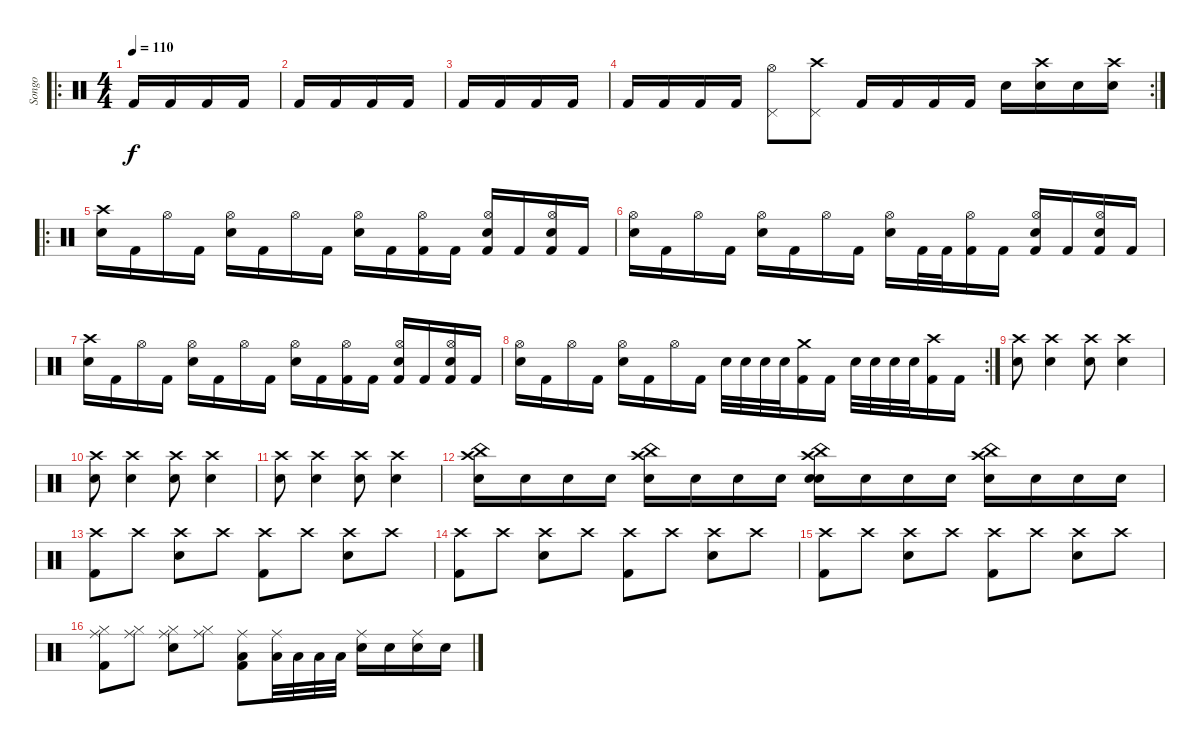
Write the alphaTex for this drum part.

\track ("Songo" "Songo") {instrument percussion}
\staff {score}
\articulation defaults
\ro
\ts (4 4)
\tempo 110
\clef neutral
\ks c "Kick (hit) 2".16{dy f} "Kick (hit) 2".16 "Kick (hit) 2".16 "Kick (hit) 2".16
|
"Kick (hit) 2".16 "Kick (hit) 2".16 "Kick (hit) 2".16 "Kick (hit) 2".16 |
"Kick (hit) 2".16 "Kick (hit) 2".16 "Kick (hit) 2".16 "Kick (hit) 2".16 |
\rc 2 "Kick (hit) 2".16 "Kick (hit) 2".16 "Kick (hit) 2".16 "Kick (hit) 2".16
("Pedal Hi-Hat (hit)" "Hi-Hat (open)").8 ("Pedal Hi-Hat (hit)" "Crash high (hit)").8 "Kick (hit) 2".16 "Kick (hit) 2".16 "Kick (hit) 2".16 "Kick (hit) 2".16 "Snare (hit) 2".16 ("Snare (hit) 2" "Crash high (hit)").16 "Snare (hit) 2".16 ("Snare (hit) 2" "Crash high (hit)").16 |
\ro
("Crash high (hit)" "Snare (hit) 2").16 "Kick (hit) 2".16 "Hi-Hat (open)".16 "Kick (hit) 2".16 ("Hi-Hat (open)" "Snare (hit) 2").16 "Kick (hit) 2".16 "Hi-Hat (open)".16 "Kick (hit) 2".16 ("Hi-Hat (open)" "Snare (hit) 2").16 "Kick (hit) 2".16 ("Hi-Hat (open)" "Kick (hit) 2").16 "Kick (hit) 2".16 ("Hi-Hat (open)" "Snare (hit) 2" "Kick (hit) 2").16 "Kick (hit) 2".16 ("Hi-Hat (open)" "Snare (hit) 2" "Kick (hit) 2").16 "Kick (hit) 2".16 |
("Hi-Hat (open)" "Snare (hit) 2").16 "Kick (hit) 2".16 "Hi-Hat (open)".16 "Kick (hit) 2".16 ("Hi-Hat (open)" "Snare (hit) 2").16 "Kick (hit) 2".16 "Hi-Hat (open)".16 "Kick (hit) 2".16 ("Hi-Hat (open)" "Snare (hit) 2").16 "Kick (hit) 2".32 "Kick (hit) 2".32 ("Hi-Hat (open)" "Kick (hit) 2").16 "Kick (hit) 2".16 ("Hi-Hat (open)" "Snare (hit) 2" "Kick (hit) 2").16 "Kick (hit) 2".16 ("Hi-Hat (open)" "Snare (hit) 2" "Kick (hit) 2").16 "Kick (hit) 2".16 |
("Crash high (hit)" "Snare (hit) 2").16 "Kick (hit) 2".16 "Hi-Hat (open)".16 "Kick (hit) 2".16 ("Hi-Hat (open)" "Snare (hit) 2").16 "Kick (hit) 2".16 "Hi-Hat (open)".16 "Kick (hit) 2".16 ("Hi-Hat (open)" "Snare (hit) 2").16 "Kick (hit) 2".16 ("Hi-Hat (open)" "Kick (hit) 2").16 "Kick (hit) 2".16 ("Hi-Hat (open)" "Snare (hit) 2" "Kick (hit) 2").16 "Kick (hit) 2".16 ("Hi-Hat (open)" "Snare (hit) 2" "Kick (hit) 2").16 "Kick (hit) 2".16 |
\rc 2
("Hi-Hat (open)" "Snare (hit) 2").16 "Kick (hit) 2".16 "Hi-Hat (open)".16 "Kick (hit) 2".16 ("Hi-Hat (open)" "Snare (hit) 2").16 "Kick (hit) 2".16 "Hi-Hat (open)".16 "Kick (hit) 2".16 "Snare (hit) 2".32 "Snare (hit) 2".32 "Snare (hit) 2".32 "Snare (hit) 2".32 ("Crash medium (hit)" "Kick (hit) 2").16 "Kick (hit) 2".16 "Snare (hit) 2".32 "Snare (hit) 2".32 "Snare (hit) 2".32 "Snare (hit) 2".32 ("Crash high (hit)" "Kick (hit) 2").16 "Kick (hit) 2".16 |
("Snare (hit) 2" "Crash high (hit)").8 ("Snare (hit) 2" "Crash high (hit)").4 ("Snare (hit) 2" "Crash high (hit)").8 ("Snare (hit) 2" "Crash high (hit)").4 |
("Snare (hit) 2" "Crash high (hit)").8 ("Snare (hit) 2" "Crash high (hit)").4 ("Snare (hit) 2" "Crash high (hit)").8 ("Snare (hit) 2" "Crash high (hit)").4 |
("Snare (hit) 2" "Crash high (hit)").8 ("Snare (hit) 2" "Crash high (hit)").4 ("Snare (hit) 2" "Crash high (hit)").8 ("Snare (hit) 2" "Crash high (hit)").4 |
("China (hit)" "Crash high (hit)" "Snare (hit) 2").16 "Snare (hit) 2".16 "Snare (hit) 2".16 "Snare (hit) 2".16 ("China (hit)" "Crash high (hit)" "Snare (hit) 2").16 "Snare (hit) 2".16 "Snare (hit) 2".16 "Snare (hit) 2".16 ("China (hit)" "Crash high (hit)" "Electric Snare (hit)" "Snare (hit) 2").16 "Snare (hit) 2".16 "Snare (hit) 2".16 "Snare (hit) 2".16 ("China (hit)" "Crash high (hit)" "Snare (hit) 2").16 "Snare (hit) 2".16 "Snare (hit) 2".16 "Snare (hit) 2".16 |
("Crash high (hit)" "Kick (hit) 2").8 "Crash high (hit)".8 ("Crash high (hit)" "Electric Snare (hit)").8 "Crash high (hit)".8 ("Crash high (hit)" "Kick (hit) 2").8 "Crash high (hit)".8 ("Crash high (hit)" "Electric Snare (hit)").8 "Crash high (hit)".8 |
("Crash high (hit)" "Kick (hit) 2").8 "Crash high (hit)".8 ("Crash high (hit)" "Electric Snare (hit)").8 "Crash high (hit)".8 ("Crash high (hit)" "Kick (hit) 2").8 "Crash high (hit)".8 ("Crash high (hit)" "Electric Snare (hit)").8 "Crash high (hit)".8 |
("Crash high (hit)" "Kick (hit) 2").8 "Crash high (hit)".8 ("Crash high (hit)" "Electric Snare (hit)").8 "Crash high (hit)".8 ("Crash high (hit)" "Kick (hit) 2").8 "Crash high (hit)".8 ("Crash high (hit)" "Electric Snare (hit)").8 "Crash high (hit)".8 |
("Ride (middle)" "Hi-Hat (closed)" "Kick (hit) 2").8 ("Ride (middle)" "Hi-Hat (closed)").8 ("Hi-Hat (closed)" "Ride (middle)" "Electric Snare (hit)").8 ("Ride (middle)" "Hi-Hat (closed)").8 ("Ride (middle)" "Low Tom (hit)" "Kick (hit) 2").8 ("Ride (middle)" "Low Tom (hit)").32 "Low Tom (hit)".32 "Low Tom (hit)".32 "Low Tom (hit)".32 ("Ride (middle)" "Electric Snare (hit)").16 "Electric Snare (hit)".16 ("Ride (middle)" "Electric Snare (hit)").16 "Electric Snare (hit)".16
